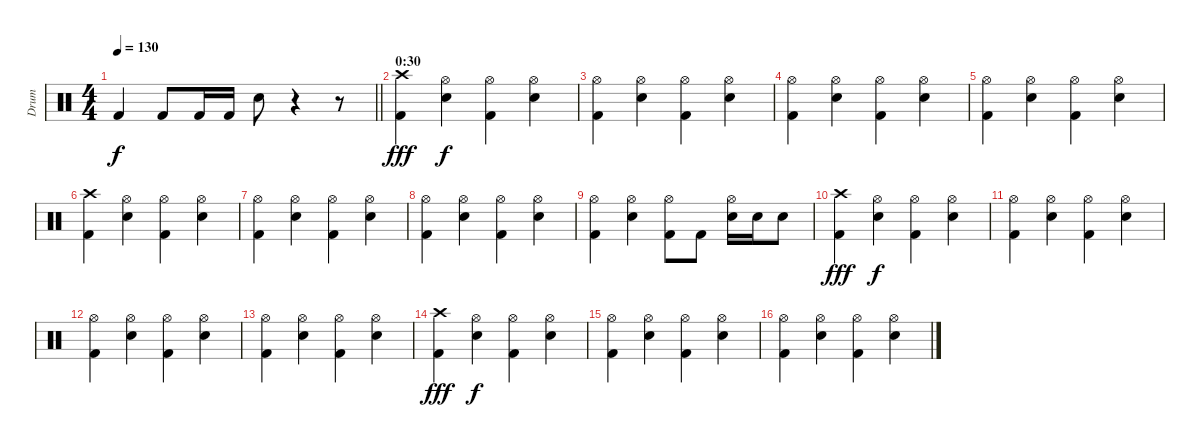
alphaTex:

\track ("Drum" "Drum") {instrument percussion}
\staff {score}
\articulation defaults
\ts (4 4)
\tempo 130
\clef neutral
\barLineRight lightlight
\ks c "Kick (hit) 2".4{dy f} "Kick (hit) 2".8 "Kick (hit) 2".16 "Kick (hit) 2".16 "Electric Snare (hit)".8
r.4 r.8 |
\section ("" "0:30")
("Kick (hit) 2" "Crash high (hit)").4{dy fff} ("Electric Snare (hit)" "Hi-Hat (open)").4{dy f} ("Kick (hit) 2" "Hi-Hat (open)").4 ("Electric Snare (hit)" "Hi-Hat (open)").4 |
("Kick (hit) 2" "Hi-Hat (open)").4 ("Electric Snare (hit)" "Hi-Hat (open)").4 ("Kick (hit) 2" "Hi-Hat (open)").4 ("Electric Snare (hit)" "Hi-Hat (open)").4 |
("Kick (hit) 2" "Hi-Hat (open)").4 ("Electric Snare (hit)" "Hi-Hat (open)").4 ("Kick (hit) 2" "Hi-Hat (open)").4 ("Electric Snare (hit)" "Hi-Hat (open)").4 |
("Kick (hit) 2" "Hi-Hat (open)").4 ("Electric Snare (hit)" "Hi-Hat (open)").4 ("Kick (hit) 2" "Hi-Hat (open)").4 ("Electric Snare (hit)" "Hi-Hat (open)").4 |
("Kick (hit) 2" "Crash high (hit)").4 ("Electric Snare (hit)" "Hi-Hat (open)").4 ("Kick (hit) 2" "Hi-Hat (open)").4 ("Electric Snare (hit)" "Hi-Hat (open)").4 |
("Kick (hit) 2" "Hi-Hat (open)").4 ("Electric Snare (hit)" "Hi-Hat (open)").4 ("Kick (hit) 2" "Hi-Hat (open)").4 ("Electric Snare (hit)" "Hi-Hat (open)").4 |
("Kick (hit) 2" "Hi-Hat (open)").4 ("Electric Snare (hit)" "Hi-Hat (open)").4 ("Kick (hit) 2" "Hi-Hat (open)").4 ("Electric Snare (hit)" "Hi-Hat (open)").4 |
("Kick (hit) 2" "Hi-Hat (open)").4 ("Electric Snare (hit)" "Hi-Hat (open)").4 ("Kick (hit) 2" "Hi-Hat (open)").8 "Kick (hit) 2".8 ("Electric Snare (hit)" "Hi-Hat (open)").16 "Electric Snare (hit)".16 "Electric Snare (hit)".8 |
("Kick (hit) 2" "Crash high (hit)").4{dy fff} ("Electric Snare (hit)" "Hi-Hat (open)").4{dy f} ("Kick (hit) 2" "Hi-Hat (open)").4 ("Electric Snare (hit)" "Hi-Hat (open)").4 |
("Kick (hit) 2" "Hi-Hat (open)").4 ("Electric Snare (hit)" "Hi-Hat (open)").4 ("Kick (hit) 2" "Hi-Hat (open)").4 ("Electric Snare (hit)" "Hi-Hat (open)").4 |
("Kick (hit) 2" "Hi-Hat (open)").4 ("Electric Snare (hit)" "Hi-Hat (open)").4 ("Kick (hit) 2" "Hi-Hat (open)").4 ("Electric Snare (hit)" "Hi-Hat (open)").4 |
("Kick (hit) 2" "Hi-Hat (open)").4 ("Electric Snare (hit)" "Hi-Hat (open)").4 ("Kick (hit) 2" "Hi-Hat (open)").4 ("Electric Snare (hit)" "Hi-Hat (open)").4 |
("Kick (hit) 2" "Crash high (hit)").4{dy fff} ("Electric Snare (hit)" "Hi-Hat (open)").4{dy f} ("Kick (hit) 2" "Hi-Hat (open)").4 ("Electric Snare (hit)" "Hi-Hat (open)").4 |
("Kick (hit) 2" "Hi-Hat (open)").4 ("Electric Snare (hit)" "Hi-Hat (open)").4 ("Kick (hit) 2" "Hi-Hat (open)").4 ("Electric Snare (hit)" "Hi-Hat (open)").4 |
("Kick (hit) 2" "Hi-Hat (open)").4 ("Electric Snare (hit)" "Hi-Hat (open)").4 ("Kick (hit) 2" "Hi-Hat (open)").4 ("Electric Snare (hit)" "Hi-Hat (open)").4
